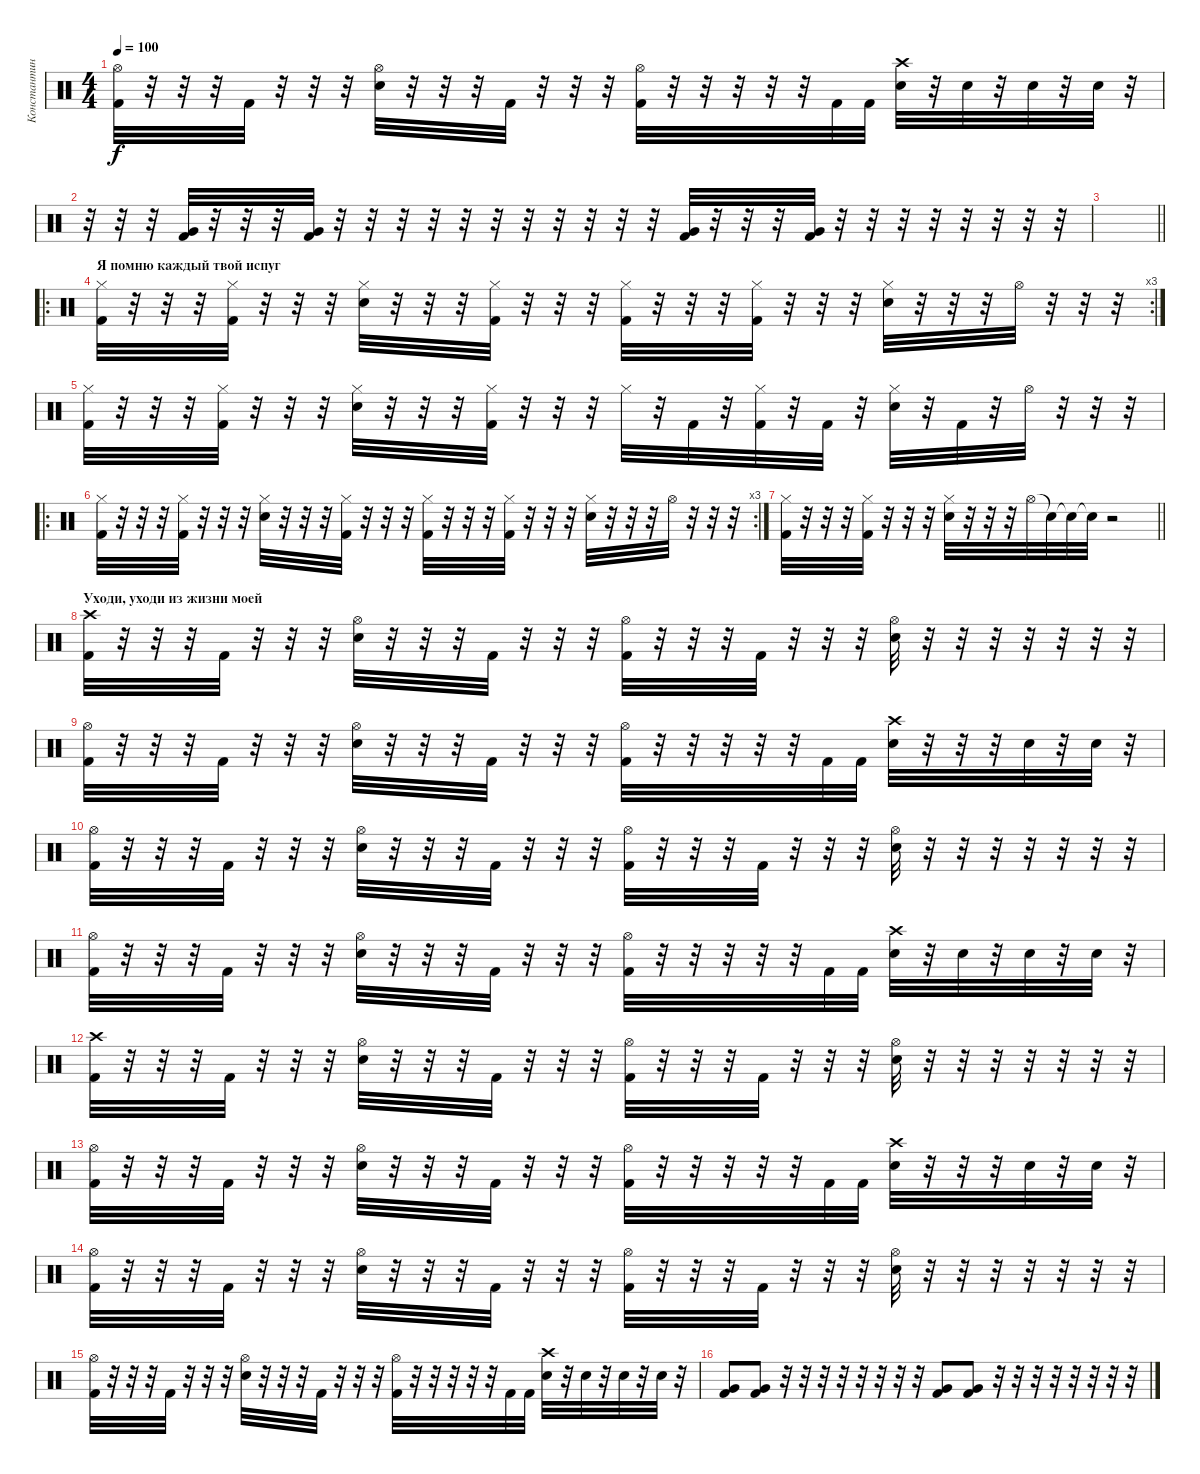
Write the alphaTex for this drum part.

\track ("Константин \"Салян\" Сальников" "Константин") {instrument percussion}
\staff {score}
\articulation defaults
\ts (4 4)
\tempo 100
\clef neutral
\ks c
("Hi-Hat (open)" "Kick (hit) 2").32{dy f} r.32 r.32 r.32 "Kick (hit) 2".32 r.32 r.32 r.32 ("Hi-Hat (open)" "Electric Snare (hit)").32 r.32 r.32 r.32 "Kick (hit) 2".32 r.32 r.32 r.32 ("Hi-Hat (open)" "Kick (hit) 2").32 r.32 r.32 r.32 r.32 r.32 "Kick (hit) 2".32 "Kick (hit) 2".32 ("Crash high (hit)" "Electric Snare (hit)").32 r.32 "Electric Snare (hit)".32 r.32 "Electric Snare (hit)".32 r.32 "Electric Snare (hit)".32 r.32 |
r.32 r.32 r.32 ("Very Low Tom (hit)" "Kick (hit) 2").32 r.32 r.32 r.32 ("Very Low Tom (hit)" "Kick (hit) 2").32 r.32 r.32 r.32 r.32 r.32 r.32 r.32 r.32 r.32 r.32 r.32 ("Very Low Tom (hit)" "Kick (hit) 2").32 r.32 r.32 r.32 ("Very Low Tom (hit)" "Kick (hit) 2").32 r.32 r.32 r.32 r.32 r.32 r.32 r.32 r.32 |
\barLineRight lightlight
|
\ro
\rc 3
\section ("" "Я помню каждый твой испуг")
("Hi-Hat (closed)" "Kick (hit) 2").32 r.32 r.32 r.32 ("Hi-Hat (closed)" "Kick (hit) 2").32 r.32 r.32 r.32 ("Hi-Hat (closed)" "Electric Snare (hit)").32 r.32 r.32 r.32 ("Hi-Hat (closed)" "Kick (hit) 2").32 r.32 r.32 r.32 ("Hi-Hat (closed)" "Kick (hit) 2").32 r.32 r.32 r.32 ("Hi-Hat (closed)" "Kick (hit) 2").32 r.32 r.32 r.32 ("Hi-Hat (closed)" "Electric Snare (hit)").32 r.32 r.32 r.32 "Hi-Hat (open)".32 r.32 r.32 r.32 |
("Hi-Hat (closed)" "Kick (hit) 2").32 r.32 r.32 r.32 ("Hi-Hat (closed)" "Kick (hit) 2").32 r.32 r.32 r.32 ("Hi-Hat (closed)" "Electric Snare (hit)").32 r.32 r.32 r.32 ("Hi-Hat (closed)" "Kick (hit) 2").32 r.32 r.32 r.32 "Hi-Hat (closed)".32 r.32 "Kick (hit) 2".32 r.32 ("Hi-Hat (closed)" "Kick (hit) 2").32 r.32 "Kick (hit) 2".32 r.32 ("Hi-Hat (closed)" "Electric Snare (hit)").32 r.32 "Kick (hit) 2".32 r.32 "Hi-Hat (open)".32 r.32 r.32 r.32 |
\ro
\rc 3
("Hi-Hat (closed)" "Kick (hit) 2").32 r.32 r.32 r.32 ("Hi-Hat (closed)" "Kick (hit) 2").32 r.32 r.32 r.32 ("Hi-Hat (closed)" "Electric Snare (hit)").32 r.32 r.32 r.32 ("Hi-Hat (closed)" "Kick (hit) 2").32 r.32 r.32 r.32 ("Hi-Hat (closed)" "Kick (hit) 2").32 r.32 r.32 r.32 ("Hi-Hat (closed)" "Kick (hit) 2").32 r.32 r.32 r.32 ("Hi-Hat (closed)" "Electric Snare (hit)").32 r.32 r.32 r.32 "Hi-Hat (open)".32 r.32 r.32 r.32 |
\barLineRight lightlight
("Hi-Hat (closed)" "Kick (hit) 2").32 r.32 r.32 r.32 ("Hi-Hat (closed)" "Kick (hit) 2").32 r.32 r.32 r.32 ("Hi-Hat (closed)" "Electric Snare (hit)").32 r.32 r.32 r.32 "Hi-Hat (open)".32 "Snare (hit)"{t}.32 "Snare (hit)"{t}.32 "Snare (hit)"{t}.32 r.2 |
\section ("" "Уходи, уходи из жизни моей")
("Crash high (hit)" "Kick (hit) 2").32 r.32 r.32 r.32 "Kick (hit) 2".32 r.32 r.32 r.32 ("Hi-Hat (open)" "Electric Snare (hit)").32 r.32 r.32 r.32 "Kick (hit) 2".32 r.32 r.32 r.32 ("Hi-Hat (open)" "Kick (hit) 2").32 r.32 r.32 r.32 "Kick (hit) 2".32 r.32 r.32 r.32 ("Hi-Hat (open)" "Electric Snare (hit)").32 r.32 r.32 r.32 r.32 r.32 r.32 r.32 |
("Hi-Hat (open)" "Kick (hit) 2").32 r.32 r.32 r.32 "Kick (hit) 2".32 r.32 r.32 r.32 ("Hi-Hat (open)" "Electric Snare (hit)").32 r.32 r.32 r.32 "Kick (hit) 2".32 r.32 r.32 r.32 ("Hi-Hat (open)" "Kick (hit) 2").32 r.32 r.32 r.32 r.32 r.32 "Kick (hit) 2".32 "Kick (hit) 2".32 ("Crash high (hit)" "Electric Snare (hit)").32 r.32 r.32 r.32 "Electric Snare (hit)".32 r.32 "Electric Snare (hit)".32 r.32 |
("Hi-Hat (open)" "Kick (hit) 2").32 r.32 r.32 r.32 "Kick (hit) 2".32 r.32 r.32 r.32 ("Hi-Hat (open)" "Electric Snare (hit)").32 r.32 r.32 r.32 "Kick (hit) 2".32 r.32 r.32 r.32 ("Hi-Hat (open)" "Kick (hit) 2").32 r.32 r.32 r.32 "Kick (hit) 2".32 r.32 r.32 r.32 ("Hi-Hat (open)" "Electric Snare (hit)").32 r.32 r.32 r.32 r.32 r.32 r.32 r.32 |
("Hi-Hat (open)" "Kick (hit) 2").32 r.32 r.32 r.32 "Kick (hit) 2".32 r.32 r.32 r.32 ("Hi-Hat (open)" "Electric Snare (hit)").32 r.32 r.32 r.32 "Kick (hit) 2".32 r.32 r.32 r.32 ("Hi-Hat (open)" "Kick (hit) 2").32 r.32 r.32 r.32 r.32 r.32 "Kick (hit) 2".32 "Kick (hit) 2".32 ("Crash high (hit)" "Electric Snare (hit)").32 r.32 "Electric Snare (hit)".32 r.32 "Electric Snare (hit)".32 r.32 "Electric Snare (hit)".32 r.32 |
("Crash high (hit)" "Kick (hit) 2").32 r.32 r.32 r.32 "Kick (hit) 2".32 r.32 r.32 r.32 ("Hi-Hat (open)" "Electric Snare (hit)").32 r.32 r.32 r.32 "Kick (hit) 2".32 r.32 r.32 r.32 ("Hi-Hat (open)" "Kick (hit) 2").32 r.32 r.32 r.32 "Kick (hit) 2".32 r.32 r.32 r.32 ("Hi-Hat (open)" "Electric Snare (hit)").32 r.32 r.32 r.32 r.32 r.32 r.32 r.32 |
("Hi-Hat (open)" "Kick (hit) 2").32 r.32 r.32 r.32 "Kick (hit) 2".32 r.32 r.32 r.32 ("Hi-Hat (open)" "Electric Snare (hit)").32 r.32 r.32 r.32 "Kick (hit) 2".32 r.32 r.32 r.32 ("Hi-Hat (open)" "Kick (hit) 2").32 r.32 r.32 r.32 r.32 r.32 "Kick (hit) 2".32 "Kick (hit) 2".32 ("Crash high (hit)" "Electric Snare (hit)").32 r.32 r.32 r.32 "Electric Snare (hit)".32 r.32 "Electric Snare (hit)".32 r.32 |
("Hi-Hat (open)" "Kick (hit) 2").32 r.32 r.32 r.32 "Kick (hit) 2".32 r.32 r.32 r.32 ("Hi-Hat (open)" "Electric Snare (hit)").32 r.32 r.32 r.32 "Kick (hit) 2".32 r.32 r.32 r.32 ("Hi-Hat (open)" "Kick (hit) 2").32 r.32 r.32 r.32 "Kick (hit) 2".32 r.32 r.32 r.32 ("Hi-Hat (open)" "Electric Snare (hit)").32 r.32 r.32 r.32 r.32 r.32 r.32 r.32 |
("Hi-Hat (open)" "Kick (hit) 2").32 r.32 r.32 r.32 "Kick (hit) 2".32 r.32 r.32 r.32 ("Hi-Hat (open)" "Electric Snare (hit)").32 r.32 r.32 r.32 "Kick (hit) 2".32 r.32 r.32 r.32 ("Hi-Hat (open)" "Kick (hit) 2").32 r.32 r.32 r.32 r.32 r.32 "Kick (hit) 2".32 "Kick (hit) 2".32 ("Crash high (hit)" "Electric Snare (hit)").32 r.32 "Electric Snare (hit)".32 r.32 "Electric Snare (hit)".32 r.32 "Electric Snare (hit)".32 r.32 |
("Very Low Tom (hit)" "Kick (hit) 2").8 ("Very Low Tom (hit)" "Kick (hit) 2").8 r.32 r.32 r.32 r.32 r.32 r.32 r.32 r.32 ("Very Low Tom (hit)" "Kick (hit) 2").8 ("Very Low Tom (hit)" "Kick (hit) 2").8 r.32 r.32 r.32 r.32 r.32 r.32 r.32 r.32
